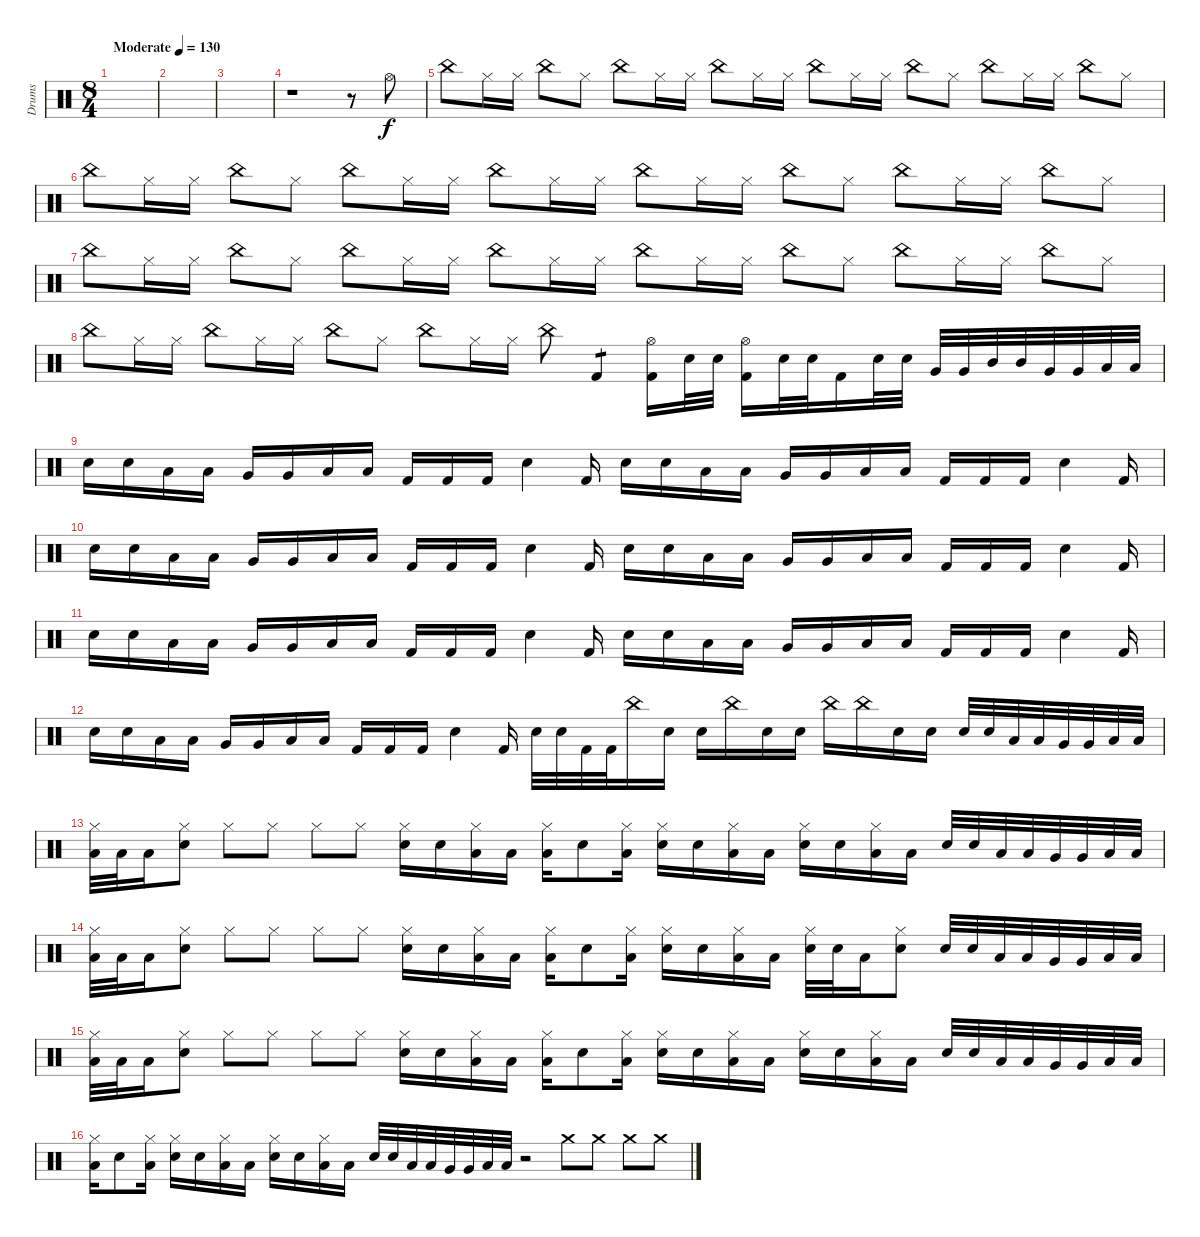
\track ("Drums" "Drums") {instrument percussion}
\staff
\articulation defaults
\ts (8 4)
\tempo (130 "Moderate")
\tempo 90
\tempo (130 "Moderate")
\clef neutral
\ks c
|
|
|
r.1 r.8 "Hi-Hat (open)".8 |
"China (hit)".8 "Hi-Hat (closed)".16 "Hi-Hat (closed)".16 "China (hit)".8 "Hi-Hat (closed)".8 "China (hit)".8 "Hi-Hat (closed)".16 "Hi-Hat (closed)".16 "China (hit)".8 "Hi-Hat (closed)".16 "Hi-Hat (closed)".16 "China (hit)".8 "Hi-Hat (closed)".16 "Hi-Hat (closed)".16 "China (hit)".8 "Hi-Hat (closed)".8 "China (hit)".8 "Hi-Hat (closed)".16 "Hi-Hat (closed)".16 "China (hit)".8 "Hi-Hat (closed)".8 |
"China (hit)".8 "Hi-Hat (closed)".16 "Hi-Hat (closed)".16 "China (hit)".8 "Hi-Hat (closed)".8 "China (hit)".8 "Hi-Hat (closed)".16 "Hi-Hat (closed)".16 "China (hit)".8 "Hi-Hat (closed)".16 "Hi-Hat (closed)".16 "China (hit)".8 "Hi-Hat (closed)".16 "Hi-Hat (closed)".16 "China (hit)".8 "Hi-Hat (closed)".8 "China (hit)".8 "Hi-Hat (closed)".16 "Hi-Hat (closed)".16 "China (hit)".8 "Hi-Hat (closed)".8 |
"China (hit)".8 "Hi-Hat (closed)".16 "Hi-Hat (closed)".16 "China (hit)".8 "Hi-Hat (closed)".8 "China (hit)".8 "Hi-Hat (closed)".16 "Hi-Hat (closed)".16 "China (hit)".8 "Hi-Hat (closed)".16 "Hi-Hat (closed)".16 "China (hit)".8 "Hi-Hat (closed)".16 "Hi-Hat (closed)".16 "China (hit)".8 "Hi-Hat (closed)".8 "China (hit)".8 "Hi-Hat (closed)".16 "Hi-Hat (closed)".16 "China (hit)".8 "Hi-Hat (closed)".8 |
"China (hit)".8 "Hi-Hat (closed)".16 "Hi-Hat (closed)".16 "China (hit)".8 "Hi-Hat (closed)".16 "Hi-Hat (closed)".16 "China (hit)".8 "Hi-Hat (closed)".8 "China (hit)".8 "Hi-Hat (closed)".16 "Hi-Hat (closed)".16 "China (hit)".8 "Kick (hit) 2".4{tp 1} ("Hi-Hat (open)" "Kick (hit) 2").16 "Electric Snare (hit)".32 "Electric Snare (hit)".32 ("Hi-Hat (open)" "Kick (hit) 2").16 "Electric Snare (hit)".32 "Electric Snare (hit)".32 "Kick (hit) 2".16 "Electric Snare (hit)".32 "Electric Snare (hit)".32 "Very Low Tom (hit)".32 "Very Low Tom (hit)".32 "Mid Tom (hit)".32 "Mid Tom (hit)".32 "Very Low Tom (hit)".32 "Very Low Tom (hit)".32 "Low Floor Tom (hit)".32 "Low Floor Tom (hit)".32 |
"Electric Snare (hit)".16 "Electric Snare (hit)".16 "Low Tom (hit)".16 "Low Tom (hit)".16 "Very Low Tom (hit)".16 "Very Low Tom (hit)".16 "Low Floor Tom (hit)".16 "Low Floor Tom (hit)".16 "Kick (hit) 2".16 "Kick (hit) 2".16 "Kick (hit) 2".16 "Electric Snare (hit)".4 "Kick (hit) 2".16 "Electric Snare (hit)".16 "Electric Snare (hit)".16 "Low Tom (hit)".16 "Low Tom (hit)".16 "Very Low Tom (hit)".16 "Very Low Tom (hit)".16 "Low Floor Tom (hit)".16 "Low Floor Tom (hit)".16 "Kick (hit) 2".16 "Kick (hit) 2".16 "Kick (hit) 2".16 "Electric Snare (hit)".4 "Kick (hit) 2".16 |
"Electric Snare (hit)".16 "Electric Snare (hit)".16 "Low Tom (hit)".16 "Low Tom (hit)".16 "Very Low Tom (hit)".16 "Very Low Tom (hit)".16 "Low Floor Tom (hit)".16 "Low Floor Tom (hit)".16 "Kick (hit) 2".16 "Kick (hit) 2".16 "Kick (hit) 2".16 "Electric Snare (hit)".4 "Kick (hit) 2".16 "Electric Snare (hit)".16 "Electric Snare (hit)".16 "Low Tom (hit)".16 "Low Tom (hit)".16 "Very Low Tom (hit)".16 "Very Low Tom (hit)".16 "Low Floor Tom (hit)".16 "Low Floor Tom (hit)".16 "Kick (hit) 2".16 "Kick (hit) 2".16 "Kick (hit) 2".16 "Electric Snare (hit)".4 "Kick (hit) 2".16 |
"Electric Snare (hit)".16 "Electric Snare (hit)".16 "Low Tom (hit)".16 "Low Tom (hit)".16 "Very Low Tom (hit)".16 "Very Low Tom (hit)".16 "Low Floor Tom (hit)".16 "Low Floor Tom (hit)".16 "Kick (hit) 2".16 "Kick (hit) 2".16 "Kick (hit) 2".16 "Electric Snare (hit)".4 "Kick (hit) 2".16 "Electric Snare (hit)".16 "Electric Snare (hit)".16 "Low Tom (hit)".16 "Low Tom (hit)".16 "Very Low Tom (hit)".16 "Very Low Tom (hit)".16 "Low Floor Tom (hit)".16 "Low Floor Tom (hit)".16 "Kick (hit) 2".16 "Kick (hit) 2".16 "Kick (hit) 2".16 "Electric Snare (hit)".4 "Kick (hit) 2".16 |
"Electric Snare (hit)".16 "Electric Snare (hit)".16 "Low Tom (hit)".16 "Low Tom (hit)".16 "Very Low Tom (hit)".16 "Very Low Tom (hit)".16 "Low Floor Tom (hit)".16 "Low Floor Tom (hit)".16 "Kick (hit) 2".16 "Kick (hit) 2".16 "Kick (hit) 2".16 "Electric Snare (hit)".4 "Kick (hit) 2".16 "Electric Snare (hit)".32 "Electric Snare (hit)".32 "Kick (hit) 2".32 "Kick (hit) 2".32 "China (hit)".16 "Electric Snare (hit)".16 "Electric Snare (hit)".16 "China (hit)".16 "Electric Snare (hit)".16 "Electric Snare (hit)".16 "China (hit)".16 "China (hit)".16 "Electric Snare (hit)".16 "Electric Snare (hit)".16 "Electric Snare (hit)".32 "Electric Snare (hit)".32 "Low Tom (hit)".32 "Low Tom (hit)".32 "Very Low Tom (hit)".32 "Very Low Tom (hit)".32 "Low Floor Tom (hit)".32 "Low Floor Tom (hit)".32 |
("Hi-Hat (closed)" "Low Floor Tom (hit)").32 "Low Floor Tom (hit)".32 "Low Floor Tom (hit)".16 ("Hi-Hat (closed)" "Electric Snare (hit)").8 "Hi-Hat (closed)".8 "Hi-Hat (closed)".8 "Hi-Hat (closed)".8 "Hi-Hat (closed)".8 ("Hi-Hat (closed)" "Electric Snare (hit)").16 "Electric Snare (hit)".16 ("Hi-Hat (closed)" "Low Floor Tom (hit)").16 "Low Floor Tom (hit)".16 ("Hi-Hat (closed)" "Low Floor Tom (hit)").16 "Electric Snare (hit)".8 ("Hi-Hat (closed)" "Low Floor Tom (hit)").16 ("Hi-Hat (closed)" "Electric Snare (hit)").16 "Electric Snare (hit)".16 ("Hi-Hat (closed)" "Low Floor Tom (hit)").16 "Low Floor Tom (hit)".16 ("Hi-Hat (closed)" "Electric Snare (hit)").16 "Electric Snare (hit)".16 ("Hi-Hat (closed)" "Low Floor Tom (hit)").16 "Low Floor Tom (hit)".16 "Electric Snare (hit)".32 "Electric Snare (hit)".32 "Low Tom (hit)".32 "Low Tom (hit)".32 "Very Low Tom (hit)".32 "Very Low Tom (hit)".32 "Low Floor Tom (hit)".32 "Low Floor Tom (hit)".32 |
("Hi-Hat (closed)" "Low Floor Tom (hit)").32 "Low Floor Tom (hit)".32 "Low Floor Tom (hit)".16 ("Hi-Hat (closed)" "Electric Snare (hit)").8 "Hi-Hat (closed)".8 "Hi-Hat (closed)".8 "Hi-Hat (closed)".8 "Hi-Hat (closed)".8 ("Hi-Hat (closed)" "Electric Snare (hit)").16 "Electric Snare (hit)".16 ("Hi-Hat (closed)" "Low Floor Tom (hit)").16 "Low Floor Tom (hit)".16 ("Hi-Hat (closed)" "Low Floor Tom (hit)").16 "Electric Snare (hit)".8 ("Hi-Hat (closed)" "Low Floor Tom (hit)").16 ("Hi-Hat (closed)" "Electric Snare (hit)").16 "Electric Snare (hit)".16 ("Hi-Hat (closed)" "Low Floor Tom (hit)").16 "Low Floor Tom (hit)".16 ("Hi-Hat (closed)" "Electric Snare (hit)").32 "Electric Snare (hit)".32 "Low Floor Tom (hit)".16 ("Hi-Hat (closed)" "Electric Snare (hit)").8 "Electric Snare (hit)".32 "Electric Snare (hit)".32 "Low Tom (hit)".32 "Low Tom (hit)".32 "Very Low Tom (hit)".32 "Very Low Tom (hit)".32 "Low Floor Tom (hit)".32 "Low Floor Tom (hit)".32 |
("Hi-Hat (closed)" "Low Floor Tom (hit)").32 "Low Floor Tom (hit)".32 "Low Floor Tom (hit)".16 ("Hi-Hat (closed)" "Electric Snare (hit)").8 "Hi-Hat (closed)".8 "Hi-Hat (closed)".8 "Hi-Hat (closed)".8 "Hi-Hat (closed)".8 ("Hi-Hat (closed)" "Electric Snare (hit)").16 "Electric Snare (hit)".16 ("Hi-Hat (closed)" "Low Floor Tom (hit)").16 "Low Floor Tom (hit)".16 ("Hi-Hat (closed)" "Low Floor Tom (hit)").16 "Electric Snare (hit)".8 ("Hi-Hat (closed)" "Low Floor Tom (hit)").16 ("Hi-Hat (closed)" "Electric Snare (hit)").16 "Electric Snare (hit)".16 ("Hi-Hat (closed)" "Low Floor Tom (hit)").16 "Low Floor Tom (hit)".16 ("Hi-Hat (closed)" "Electric Snare (hit)").16 "Electric Snare (hit)".16 ("Hi-Hat (closed)" "Low Floor Tom (hit)").16 "Low Floor Tom (hit)".16 "Electric Snare (hit)".32 "Electric Snare (hit)".32 "Low Tom (hit)".32 "Low Tom (hit)".32 "Very Low Tom (hit)".32 "Very Low Tom (hit)".32 "Low Floor Tom (hit)".32 "Low Floor Tom (hit)".32 |
("Hi-Hat (closed)" "Low Floor Tom (hit)").16 "Electric Snare (hit)".8 ("Hi-Hat (closed)" "Low Floor Tom (hit)").16 ("Hi-Hat (closed)" "Electric Snare (hit)").16 "Electric Snare (hit)".16 ("Hi-Hat (closed)" "Low Floor Tom (hit)").16 "Low Floor Tom (hit)".16 ("Hi-Hat (closed)" "Electric Snare (hit)").16 "Electric Snare (hit)".16 ("Hi-Hat (closed)" "Low Floor Tom (hit)").16 "Low Floor Tom (hit)".16 "Electric Snare (hit)".32 "Electric Snare (hit)".32 "Low Tom (hit)".32 "Low Tom (hit)".32 "Very Low Tom (hit)".32 "Very Low Tom (hit)".32 "Low Floor Tom (hit)".32 "Low Floor Tom (hit)".32 r.2 "Crash medium (hit)".8 "Crash medium (hit)".8 "Crash medium (hit)".8 "Crash medium (hit)".8
